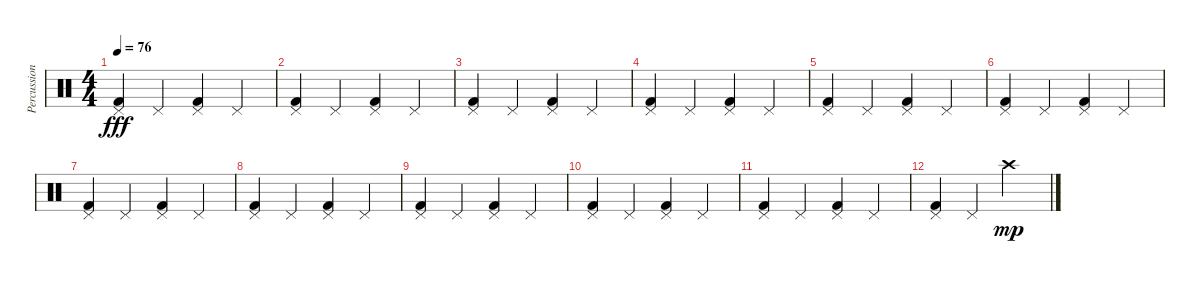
\track ("Percussion" "Percussion") {instrument percussion}
\staff {score}
\articulation defaults
\ts (4 4)
\tempo 76
\clef neutral
\ks c
("Pedal Hi-Hat (hit)" "Kick (hit) 2").4{dy fff} "Pedal Hi-Hat (hit)".4 ("Pedal Hi-Hat (hit)" "Kick (hit) 2").4 "Pedal Hi-Hat (hit)".4 |
("Pedal Hi-Hat (hit)" "Kick (hit) 2").4 "Pedal Hi-Hat (hit)".4 ("Pedal Hi-Hat (hit)" "Kick (hit) 2").4 "Pedal Hi-Hat (hit)".4 |
("Pedal Hi-Hat (hit)" "Kick (hit) 2").4 "Pedal Hi-Hat (hit)".4 ("Pedal Hi-Hat (hit)" "Kick (hit) 2").4 "Pedal Hi-Hat (hit)".4 |
("Pedal Hi-Hat (hit)" "Kick (hit) 2").4 "Pedal Hi-Hat (hit)".4 ("Pedal Hi-Hat (hit)" "Kick (hit) 2").4 "Pedal Hi-Hat (hit)".4 |
("Pedal Hi-Hat (hit)" "Kick (hit) 2").4 "Pedal Hi-Hat (hit)".4 ("Pedal Hi-Hat (hit)" "Kick (hit) 2").4 "Pedal Hi-Hat (hit)".4 |
("Pedal Hi-Hat (hit)" "Kick (hit) 2").4 "Pedal Hi-Hat (hit)".4 ("Pedal Hi-Hat (hit)" "Kick (hit) 2").4 "Pedal Hi-Hat (hit)".4 |
("Pedal Hi-Hat (hit)" "Kick (hit) 2").4 "Pedal Hi-Hat (hit)".4 ("Pedal Hi-Hat (hit)" "Kick (hit) 2").4 "Pedal Hi-Hat (hit)".4 |
("Pedal Hi-Hat (hit)" "Kick (hit) 2").4 "Pedal Hi-Hat (hit)".4 ("Pedal Hi-Hat (hit)" "Kick (hit) 2").4 "Pedal Hi-Hat (hit)".4 |
("Pedal Hi-Hat (hit)" "Kick (hit) 2").4 "Pedal Hi-Hat (hit)".4 ("Pedal Hi-Hat (hit)" "Kick (hit) 2").4 "Pedal Hi-Hat (hit)".4 |
("Pedal Hi-Hat (hit)" "Kick (hit) 2").4 "Pedal Hi-Hat (hit)".4 ("Pedal Hi-Hat (hit)" "Kick (hit) 2").4 "Pedal Hi-Hat (hit)".4 |
("Pedal Hi-Hat (hit)" "Kick (hit) 2").4 "Pedal Hi-Hat (hit)".4 ("Pedal Hi-Hat (hit)" "Kick (hit) 2").4 "Pedal Hi-Hat (hit)".4 |
("Pedal Hi-Hat (hit)" "Kick (hit) 2").4 "Pedal Hi-Hat (hit)".4 "Crash high (hit)".2{dy mp}
